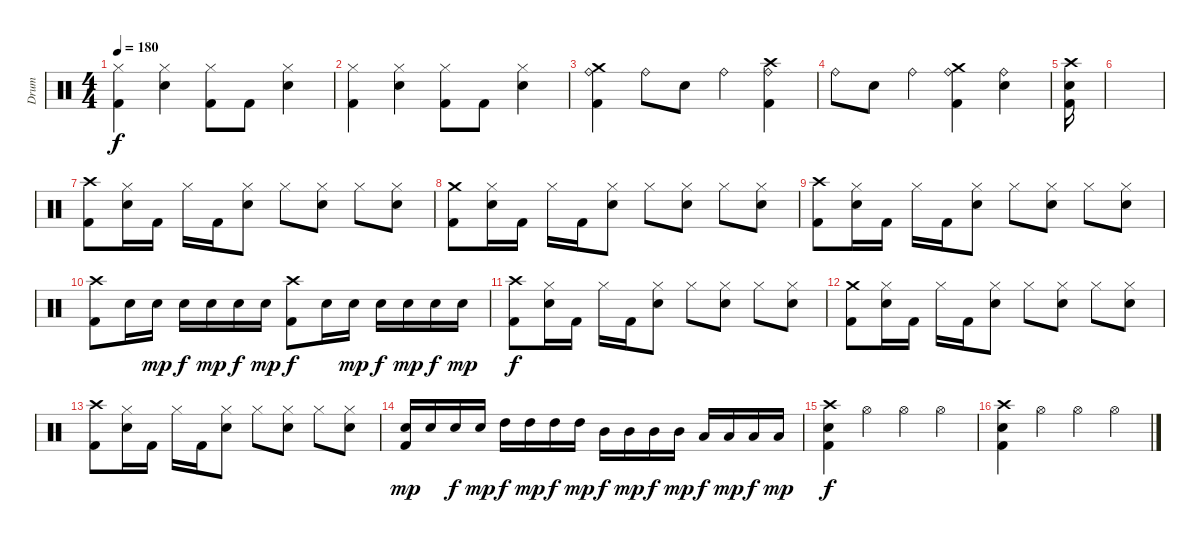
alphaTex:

\track ("Drum" "Drum") {instrument percussion}
\staff {score}
\articulation defaults
\ts (4 4)
\tempo 180
\clef neutral
\ks c
("Hi-Hat (closed)" "Kick (hit) 2").4{dy f} ("Hi-Hat (closed)" "Snare (hit) 2").4 ("Hi-Hat (closed)" "Kick (hit) 2").8 "Kick (hit) 2".8 ("Hi-Hat (closed)" "Snare (hit) 2").4 |
("Hi-Hat (closed)" "Kick (hit) 2").4 ("Hi-Hat (closed)" "Snare (hit) 2").4 ("Hi-Hat (closed)" "Kick (hit) 2").8 "Kick (hit) 2".8 ("Hi-Hat (closed)" "Snare (hit) 2").4 |
("Crash medium (hit)" "Ride (bell)" "Kick (hit) 2").4 "Ride (bell)".8 "Snare (hit) 2".8 "Ride (bell)".4 ("Crash high (hit)" "Ride (bell)" "Kick (hit) 2").4 |
"Ride (bell)".8 "Snare (hit) 2".8 "Ride (bell)".4 ("Crash medium (hit)" "Ride (bell)" "Kick (hit) 2").4 ("Ride (bell)" "Snare (hit) 2").4 |
("Crash high (hit)" "Snare (hit) 2" "Kick (hit) 2").16 |
|
("Crash high (hit)" "Kick (hit) 2").8 ("Hi-Hat (closed)" "Snare (hit) 2").16 "Kick (hit) 2".16 "Hi-Hat (closed)".16 "Kick (hit) 2".16 ("Hi-Hat (closed)" "Snare (hit) 2").8 "Hi-Hat (closed)".8 ("Hi-Hat (closed)" "Snare (hit) 2").8 "Hi-Hat (closed)".8 ("Hi-Hat (closed)" "Snare (hit) 2").8 |
("Crash medium (hit)" "Kick (hit) 2").8 ("Hi-Hat (closed)" "Snare (hit) 2").16 "Kick (hit) 2".16 "Hi-Hat (closed)".16 "Kick (hit) 2".16 ("Hi-Hat (closed)" "Snare (hit) 2").8 "Hi-Hat (closed)".8 ("Hi-Hat (closed)" "Snare (hit) 2").8 "Hi-Hat (closed)".8 ("Hi-Hat (closed)" "Snare (hit) 2").8 |
("Crash high (hit)" "Kick (hit) 2").8 ("Hi-Hat (closed)" "Snare (hit) 2").16 "Kick (hit) 2".16 "Hi-Hat (closed)".16 "Kick (hit) 2".16 ("Hi-Hat (closed)" "Snare (hit) 2").8 "Hi-Hat (closed)".8 ("Hi-Hat (closed)" "Snare (hit) 2").8 "Hi-Hat (closed)".8 ("Hi-Hat (closed)" "Snare (hit) 2").8 |
("Crash high (hit)" "Kick (hit) 2").8 "Snare (hit) 2".16 "Snare (hit) 2".16{dy mp} "Snare (hit) 2".16{dy f} "Snare (hit) 2".16{dy mp} "Snare (hit) 2".16{dy f} "Snare (hit) 2".16{dy mp} ("Crash high (hit)" "Kick (hit) 2").8{dy f} "Snare (hit) 2".16 "Snare (hit) 2".16{dy mp} "Snare (hit) 2".16{dy f} "Snare (hit) 2".16{dy mp} "Snare (hit) 2".16{dy f} "Snare (hit) 2".16{dy mp} |
("Crash high (hit)" "Kick (hit) 2").8{dy f} ("Hi-Hat (closed)" "Snare (hit) 2").16 "Kick (hit) 2".16 "Hi-Hat (closed)".16 "Kick (hit) 2".16 ("Hi-Hat (closed)" "Snare (hit) 2").8 "Hi-Hat (closed)".8 ("Hi-Hat (closed)" "Snare (hit) 2").8 "Hi-Hat (closed)".8 ("Hi-Hat (closed)" "Snare (hit) 2").8 |
("Crash medium (hit)" "Kick (hit) 2").8 ("Hi-Hat (closed)" "Snare (hit) 2").16 "Kick (hit) 2".16 "Hi-Hat (closed)".16 "Kick (hit) 2".16 ("Hi-Hat (closed)" "Snare (hit) 2").8 "Hi-Hat (closed)".8 ("Hi-Hat (closed)" "Snare (hit) 2").8 "Hi-Hat (closed)".8 ("Hi-Hat (closed)" "Snare (hit) 2").8 |
("Crash high (hit)" "Kick (hit) 2").8 ("Hi-Hat (closed)" "Snare (hit) 2").16 "Kick (hit) 2".16 "Hi-Hat (closed)".16 "Kick (hit) 2".16 ("Hi-Hat (closed)" "Snare (hit) 2").8 "Hi-Hat (closed)".8 ("Hi-Hat (closed)" "Snare (hit) 2").8 "Hi-Hat (closed)".8 ("Hi-Hat (closed)" "Snare (hit) 2").8 |
("Snare (hit) 2" "Kick (hit) 2").16{dy mp} "Snare (hit) 2".16 "Snare (hit) 2".16{dy f} "Snare (hit) 2".16{dy mp} "High Tom (hit)".16{dy f} "High Tom (hit)".16{dy mp} "High Tom (hit)".16{dy f} "High Tom (hit)".16{dy mp} "Mid Tom (hit)".16{dy f} "Mid Tom (hit)".16{dy mp} "Mid Tom (hit)".16{dy f} "Mid Tom (hit)".16{dy mp} "Low Tom (hit)".16{dy f} "Low Tom (hit)".16{dy mp} "Low Tom (hit)".16{dy f} "Low Tom (hit)".16{dy mp} |
("Crash high (hit)" "Snare (hit) 2" "Kick (hit) 2").4{dy f} "Hi-Hat (open)".4 "Hi-Hat (open)".4 "Hi-Hat (open)".4 |
("Crash high (hit)" "Snare (hit) 2" "Kick (hit) 2").4 "Hi-Hat (open)".4 "Hi-Hat (open)".4 "Hi-Hat (open)".4
